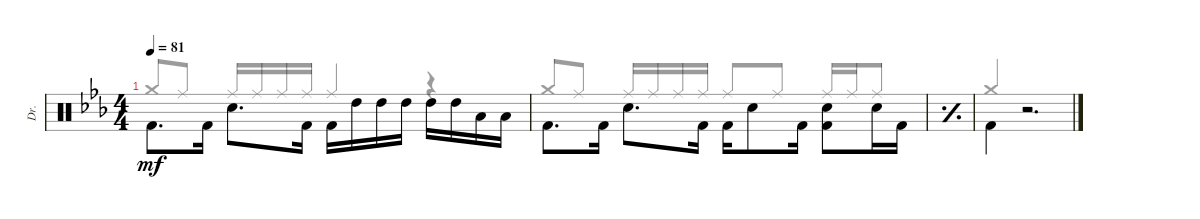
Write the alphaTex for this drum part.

\bracketExtendMode groupsimilarinstruments
\otherSystemsTrackNameOrientation horizontal
\defaultBarNumberDisplay FirstOfSystem
\track ("Drums" "Dr.") {multiBarRest instrument percussion}
\staff {score}
\articulation defaults
\voice
\ts (4 4)
\tempo 81
\clef neutral
\ks eb "Kick (hit) 2"{acc forcenatural}.8{d dy mf beam Down} "Kick (hit) 2"{acc forcenatural}.16{beam Down} "Snare (hit) 2"{acc forcenatural}.8{d beam Down} "Kick (hit) 2"{acc forcenatural}.16{beam Down} "Kick (hit) 2"{acc forcenatural}.16{beam Down} "High Tom (hit)"{acc forcenatural}.16{beam Down} "High Tom (hit)"{acc forcenatural}.16{beam Down} "High Tom (hit)"{acc forcenatural}.16{beam Down} "High Tom (hit)"{acc forcenatural}.16{beam Down} "High Tom (hit)"{acc forcenatural}.16{beam Down} "Low Tom (hit)"{acc forcenatural}.16{beam Down} "Low Tom (hit)"{acc forcenatural}.16{beam Down}
|
"Kick (hit) 2"{acc forcenatural}.8{d beam Down} "Kick (hit) 2"{acc forcenatural}.16{beam Down} "Snare (hit) 2"{acc forcenatural}.8{d beam Down} "Kick (hit) 2"{acc forcenatural}.16{beam Down} "Kick (hit) 2"{acc forcenatural}.16{beam Down} "Snare (hit) 2"{acc forcenatural}.8{beam Down} "Kick (hit) 2"{acc forcenatural}.16{beam Down} ("Snare (hit) 2"{acc forcenatural} "Kick (hit) 2"{acc forcenatural}).8{beam Down} "Snare (hit) 2"{acc forcenatural}.16{beam Down} "Kick (hit) 2"{acc forcenatural}.16{beam Down} |
\simile simple
|
\simile none "Kick (hit) 2"{acc forcenatural}.4{beam Down}
r.2{d beam Down}
\voice
\clef neutral
\ottava regular
\simile none
\ks eb "Crash medium (hit)"{acc forcenatural}.8{dy mf beam Up} "Ride (middle)"{acc forcenatural}.8{beam Up} "Ride (middle)"{acc forcenatural}.16{beam Up} "Ride (middle)"{acc forcenatural}.16{beam Up} "Ride (middle)"{acc forcenatural}.16{beam Up} "Ride (middle)"{acc forcenatural}.16{beam Up} "Ride (middle)"{acc forcenatural}.4{beam Up}
r.4{beam Down} |
"Crash medium (hit)"{acc forcenatural}.8{beam Up} "Ride (middle)"{acc forcenatural}.8{beam Up} "Ride (middle)"{acc forcenatural}.16{beam Up} "Ride (middle)"{acc forcenatural}.16{beam Up} "Ride (middle)"{acc forcenatural}.16{beam Up} "Ride (middle)"{acc forcenatural}.16{beam Up} "Ride (middle)"{acc forcenatural}.8{beam Up} "Ride (middle)"{acc forcenatural}.8{beam Up} "Ride (middle)"{acc forcenatural}.16{beam Up} "Ride (middle)"{acc forcenatural}.16{beam Up} "Ride (middle)"{acc forcenatural}.8{beam Up} |
\simile simple
|
\simile none "Crash medium (hit)"{acc forcenatural}.4{beam Up}
r.2{d beam Down}
